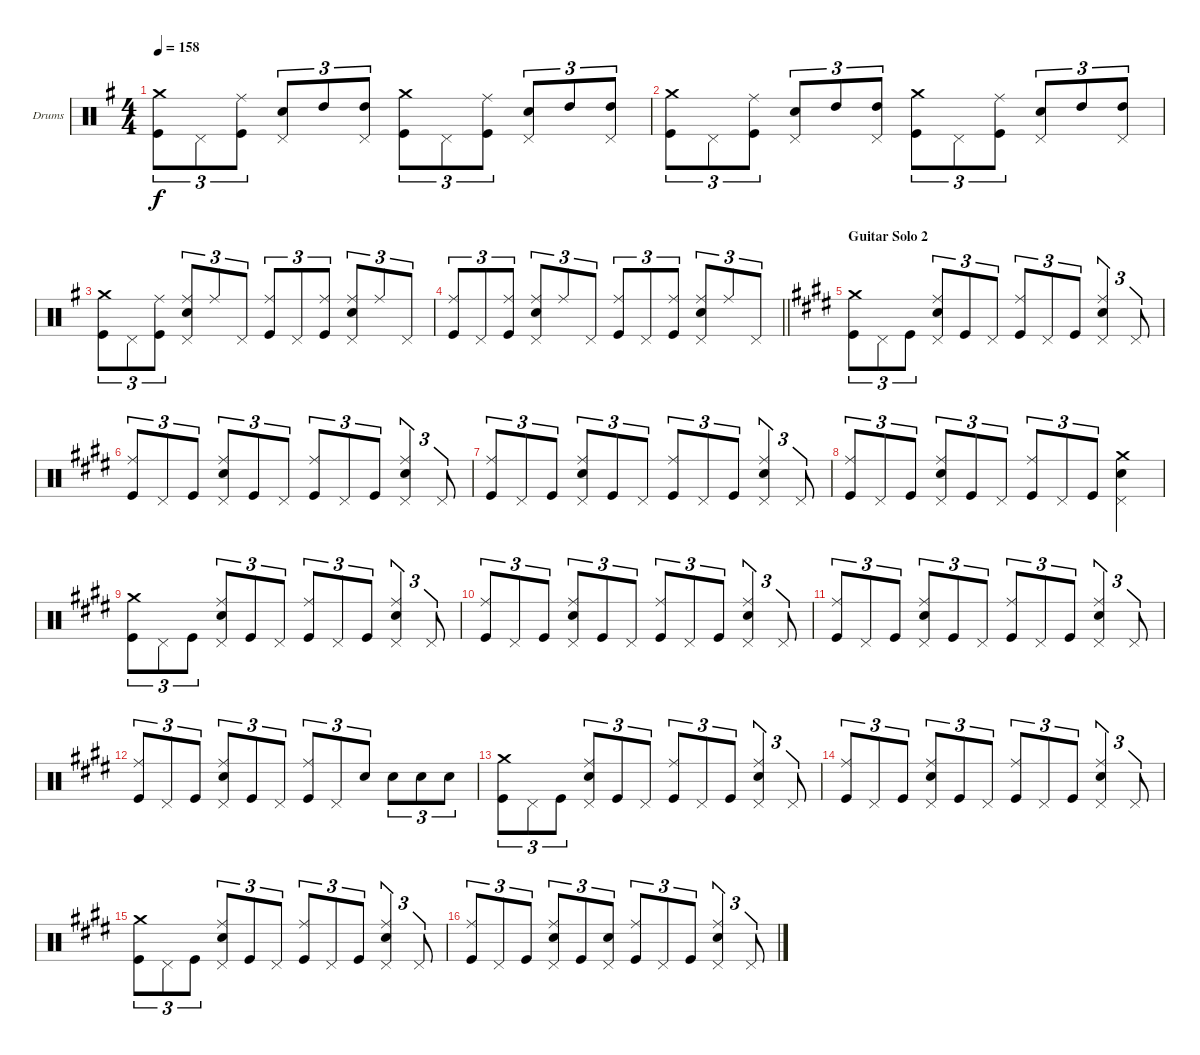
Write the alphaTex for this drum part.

\bracketExtendMode groupsimilarinstruments
\firstSystemTrackNameOrientation horizontal
\otherSystemsTrackNameOrientation horizontal
\track ("Барабаны" "Drums") {instrument percussion}
\staff {score}
\articulation defaults
\ts (4 4)
\tempo 158
\clef neutral
\ks eminor
("Kick (hit)" "Crash medium (hit)").8{tu (3 2) dy f} "Pedal Hi-Hat (hit)".8{tu (3 2)} ("Kick (hit)" "Ride (middle)").8{tu (3 2)} ("Snare (hit) 2" "Pedal Hi-Hat (hit)").8{tu (3 2)} "High Tom (hit)".8{tu (3 2)} ("Pedal Hi-Hat (hit)" "High Tom (hit)").8{tu (3 2)} ("Kick (hit)" "Crash medium (hit)").8{tu (3 2)} "Pedal Hi-Hat (hit)".8{tu (3 2)} ("Kick (hit)" "Ride (middle)").8{tu (3 2)} ("Snare (hit) 2" "Pedal Hi-Hat (hit)").8{tu (3 2)} "High Tom (hit)".8{tu (3 2)} ("Pedal Hi-Hat (hit)" "High Tom (hit)").8{tu (3 2)} |
("Kick (hit)" "Crash medium (hit)").8{tu (3 2)} "Pedal Hi-Hat (hit)".8{tu (3 2)} ("Kick (hit)" "Ride (middle)").8{tu (3 2)} ("Snare (hit) 2" "Pedal Hi-Hat (hit)").8{tu (3 2)} "High Tom (hit)".8{tu (3 2)} ("Pedal Hi-Hat (hit)" "High Tom (hit)").8{tu (3 2)} ("Kick (hit)" "Crash medium (hit)").8{tu (3 2)} "Pedal Hi-Hat (hit)".8{tu (3 2)} ("Kick (hit)" "Ride (middle)").8{tu (3 2)} ("Snare (hit) 2" "Pedal Hi-Hat (hit)").8{tu (3 2)} "High Tom (hit)".8{tu (3 2)} ("Pedal Hi-Hat (hit)" "High Tom (hit)").8{tu (3 2)} |
("Kick (hit)" "Crash medium (hit)").8{tu (3 2)} "Pedal Hi-Hat (hit)".8{tu (3 2)} ("Kick (hit)" "Ride (middle)").8{tu (3 2)} ("Snare (hit) 2" "Ride (middle)" "Pedal Hi-Hat (hit)").8{tu (3 2)} "Ride (middle)".8{tu (3 2)} "Pedal Hi-Hat (hit)".8{tu (3 2)} ("Kick (hit)" "Ride (middle)").8{tu (3 2)} "Pedal Hi-Hat (hit)".8{tu (3 2)} ("Kick (hit)" "Ride (middle)").8{tu (3 2)} ("Snare (hit) 2" "Ride (middle)" "Pedal Hi-Hat (hit)").8{tu (3 2)} "Ride (middle)".8{tu (3 2)} "Pedal Hi-Hat (hit)".8{tu (3 2)} |
\barLineRight lightlight
("Kick (hit)" "Ride (middle)").8{tu (3 2)} "Pedal Hi-Hat (hit)".8{tu (3 2)} ("Kick (hit)" "Ride (middle)").8{tu (3 2)} ("Snare (hit) 2" "Ride (middle)" "Pedal Hi-Hat (hit)").8{tu (3 2)} "Ride (middle)".8{tu (3 2)} "Pedal Hi-Hat (hit)".8{tu (3 2)} ("Kick (hit)" "Ride (middle)").8{tu (3 2)} "Pedal Hi-Hat (hit)".8{tu (3 2)} ("Kick (hit)" "Ride (middle)").8{tu (3 2)} ("Snare (hit) 2" "Ride (middle)" "Pedal Hi-Hat (hit)").8{tu (3 2)} "Ride (middle)".8{tu (3 2)} "Pedal Hi-Hat (hit)".8{tu (3 2)} |
\section ("" "Guitar Solo 2")
\ks c#minor
("Kick (hit)" "Crash medium (hit)").8{tu (3 2)} "Pedal Hi-Hat (hit)".8{tu (3 2)} "Kick (hit)".8{tu (3 2)} ("Snare (hit) 2" "Ride (middle)" "Pedal Hi-Hat (hit)").8{tu (3 2)} "Kick (hit)".8{tu (3 2)} "Pedal Hi-Hat (hit)".8{tu (3 2)} ("Kick (hit)" "Ride (middle)").8{tu (3 2)} "Pedal Hi-Hat (hit)".8{tu (3 2)} "Kick (hit)".8{tu (3 2)} ("Snare (hit) 2" "Ride (middle)" "Pedal Hi-Hat (hit)").4{tu (3 2)} "Pedal Hi-Hat (hit)".8{tu (3 2)} |
("Kick (hit)" "Ride (middle)").8{tu (3 2)} "Pedal Hi-Hat (hit)".8{tu (3 2)} "Kick (hit)".8{tu (3 2)} ("Snare (hit) 2" "Ride (middle)" "Pedal Hi-Hat (hit)").8{tu (3 2)} "Kick (hit)".8{tu (3 2)} "Pedal Hi-Hat (hit)".8{tu (3 2)} ("Kick (hit)" "Ride (middle)").8{tu (3 2)} "Pedal Hi-Hat (hit)".8{tu (3 2)} "Kick (hit)".8{tu (3 2)} ("Snare (hit) 2" "Ride (middle)" "Pedal Hi-Hat (hit)").4{tu (3 2)} "Pedal Hi-Hat (hit)".8{tu (3 2)} |
("Kick (hit)" "Ride (middle)").8{tu (3 2)} "Pedal Hi-Hat (hit)".8{tu (3 2)} "Kick (hit)".8{tu (3 2)} ("Snare (hit) 2" "Ride (middle)" "Pedal Hi-Hat (hit)").8{tu (3 2)} "Kick (hit)".8{tu (3 2)} "Pedal Hi-Hat (hit)".8{tu (3 2)} ("Kick (hit)" "Ride (middle)").8{tu (3 2)} "Pedal Hi-Hat (hit)".8{tu (3 2)} "Kick (hit)".8{tu (3 2)} ("Snare (hit) 2" "Ride (middle)" "Pedal Hi-Hat (hit)").4{tu (3 2)} "Pedal Hi-Hat (hit)".8{tu (3 2)} |
("Kick (hit)" "Ride (middle)").8{tu (3 2)} "Pedal Hi-Hat (hit)".8{tu (3 2)} "Kick (hit)".8{tu (3 2)} ("Snare (hit) 2" "Ride (middle)" "Pedal Hi-Hat (hit)").8{tu (3 2)} "Kick (hit)".8{tu (3 2)} "Pedal Hi-Hat (hit)".8{tu (3 2)} ("Kick (hit)" "Ride (middle)").8{tu (3 2)} "Pedal Hi-Hat (hit)".8{tu (3 2)} "Kick (hit)".8{tu (3 2)} ("Snare (hit) 2" "Pedal Hi-Hat (hit)" "Crash medium (hit)").4 |
("Kick (hit)" "Crash medium (hit)").8{tu (3 2)} "Pedal Hi-Hat (hit)".8{tu (3 2)} "Kick (hit)".8{tu (3 2)} ("Snare (hit) 2" "Ride (middle)" "Pedal Hi-Hat (hit)").8{tu (3 2)} "Kick (hit)".8{tu (3 2)} "Pedal Hi-Hat (hit)".8{tu (3 2)} ("Kick (hit)" "Ride (middle)").8{tu (3 2)} "Pedal Hi-Hat (hit)".8{tu (3 2)} "Kick (hit)".8{tu (3 2)} ("Snare (hit) 2" "Ride (middle)" "Pedal Hi-Hat (hit)").4{tu (3 2)} "Pedal Hi-Hat (hit)".8{tu (3 2)} |
("Kick (hit)" "Ride (middle)").8{tu (3 2)} "Pedal Hi-Hat (hit)".8{tu (3 2)} "Kick (hit)".8{tu (3 2)} ("Snare (hit) 2" "Ride (middle)" "Pedal Hi-Hat (hit)").8{tu (3 2)} "Kick (hit)".8{tu (3 2)} "Pedal Hi-Hat (hit)".8{tu (3 2)} ("Kick (hit)" "Ride (middle)").8{tu (3 2)} "Pedal Hi-Hat (hit)".8{tu (3 2)} "Kick (hit)".8{tu (3 2)} ("Snare (hit) 2" "Ride (middle)" "Pedal Hi-Hat (hit)").4{tu (3 2)} "Pedal Hi-Hat (hit)".8{tu (3 2)} |
("Kick (hit)" "Ride (middle)").8{tu (3 2)} "Pedal Hi-Hat (hit)".8{tu (3 2)} "Kick (hit)".8{tu (3 2)} ("Snare (hit) 2" "Ride (middle)" "Pedal Hi-Hat (hit)").8{tu (3 2)} "Kick (hit)".8{tu (3 2)} "Pedal Hi-Hat (hit)".8{tu (3 2)} ("Kick (hit)" "Ride (middle)").8{tu (3 2)} "Pedal Hi-Hat (hit)".8{tu (3 2)} "Kick (hit)".8{tu (3 2)} ("Snare (hit) 2" "Ride (middle)" "Pedal Hi-Hat (hit)").4{tu (3 2)} "Pedal Hi-Hat (hit)".8{tu (3 2)} |
("Kick (hit)" "Ride (middle)").8{tu (3 2)} "Pedal Hi-Hat (hit)".8{tu (3 2)} "Kick (hit)".8{tu (3 2)} ("Snare (hit) 2" "Ride (middle)" "Pedal Hi-Hat (hit)").8{tu (3 2)} "Kick (hit)".8{tu (3 2)} "Pedal Hi-Hat (hit)".8{tu (3 2)} ("Kick (hit)" "Ride (middle)").8{tu (3 2)} "Pedal Hi-Hat (hit)".8{tu (3 2)} "Snare (hit) 2".8{tu (3 2)} "Snare (hit) 2".8{tu (3 2)} "Snare (hit) 2".8{tu (3 2)} "Snare (hit) 2".8{tu (3 2)} |
("Kick (hit)" "Crash medium (hit)").8{tu (3 2)} "Pedal Hi-Hat (hit)".8{tu (3 2)} "Kick (hit)".8{tu (3 2)} ("Snare (hit) 2" "Ride (middle)" "Pedal Hi-Hat (hit)").8{tu (3 2)} "Kick (hit)".8{tu (3 2)} "Pedal Hi-Hat (hit)".8{tu (3 2)} ("Kick (hit)" "Ride (middle)").8{tu (3 2)} "Pedal Hi-Hat (hit)".8{tu (3 2)} "Kick (hit)".8{tu (3 2)} ("Snare (hit) 2" "Ride (middle)" "Pedal Hi-Hat (hit)").4{tu (3 2)} "Pedal Hi-Hat (hit)".8{tu (3 2)} |
("Kick (hit)" "Ride (middle)").8{tu (3 2)} "Pedal Hi-Hat (hit)".8{tu (3 2)} "Kick (hit)".8{tu (3 2)} ("Snare (hit) 2" "Ride (middle)" "Pedal Hi-Hat (hit)").8{tu (3 2)} "Kick (hit)".8{tu (3 2)} "Pedal Hi-Hat (hit)".8{tu (3 2)} ("Kick (hit)" "Ride (middle)").8{tu (3 2)} "Pedal Hi-Hat (hit)".8{tu (3 2)} "Kick (hit)".8{tu (3 2)} ("Snare (hit) 2" "Ride (middle)" "Pedal Hi-Hat (hit)").4{tu (3 2)} "Pedal Hi-Hat (hit)".8{tu (3 2)} |
("Kick (hit)" "Crash medium (hit)").8{tu (3 2)} "Pedal Hi-Hat (hit)".8{tu (3 2)} "Kick (hit)".8{tu (3 2)} ("Snare (hit) 2" "Ride (middle)" "Pedal Hi-Hat (hit)").8{tu (3 2)} "Kick (hit)".8{tu (3 2)} "Pedal Hi-Hat (hit)".8{tu (3 2)} ("Kick (hit)" "Ride (middle)").8{tu (3 2)} "Pedal Hi-Hat (hit)".8{tu (3 2)} "Kick (hit)".8{tu (3 2)} ("Snare (hit) 2" "Ride (middle)" "Pedal Hi-Hat (hit)").4{tu (3 2)} "Pedal Hi-Hat (hit)".8{tu (3 2)} |
("Kick (hit)" "Ride (middle)").8{tu (3 2)} "Pedal Hi-Hat (hit)".8{tu (3 2)} "Kick (hit)".8{tu (3 2)} ("Snare (hit) 2" "Ride (middle)" "Pedal Hi-Hat (hit)").8{tu (3 2)} "Kick (hit)".8{tu (3 2)} ("Pedal Hi-Hat (hit)" "Snare (hit) 2").8{tu (3 2)} ("Kick (hit)" "Ride (middle)").8{tu (3 2)} "Pedal Hi-Hat (hit)".8{tu (3 2)} "Kick (hit)".8{tu (3 2)} ("Snare (hit) 2" "Ride (middle)" "Pedal Hi-Hat (hit)").4{tu (3 2)} "Pedal Hi-Hat (hit)".8{tu (3 2)}
